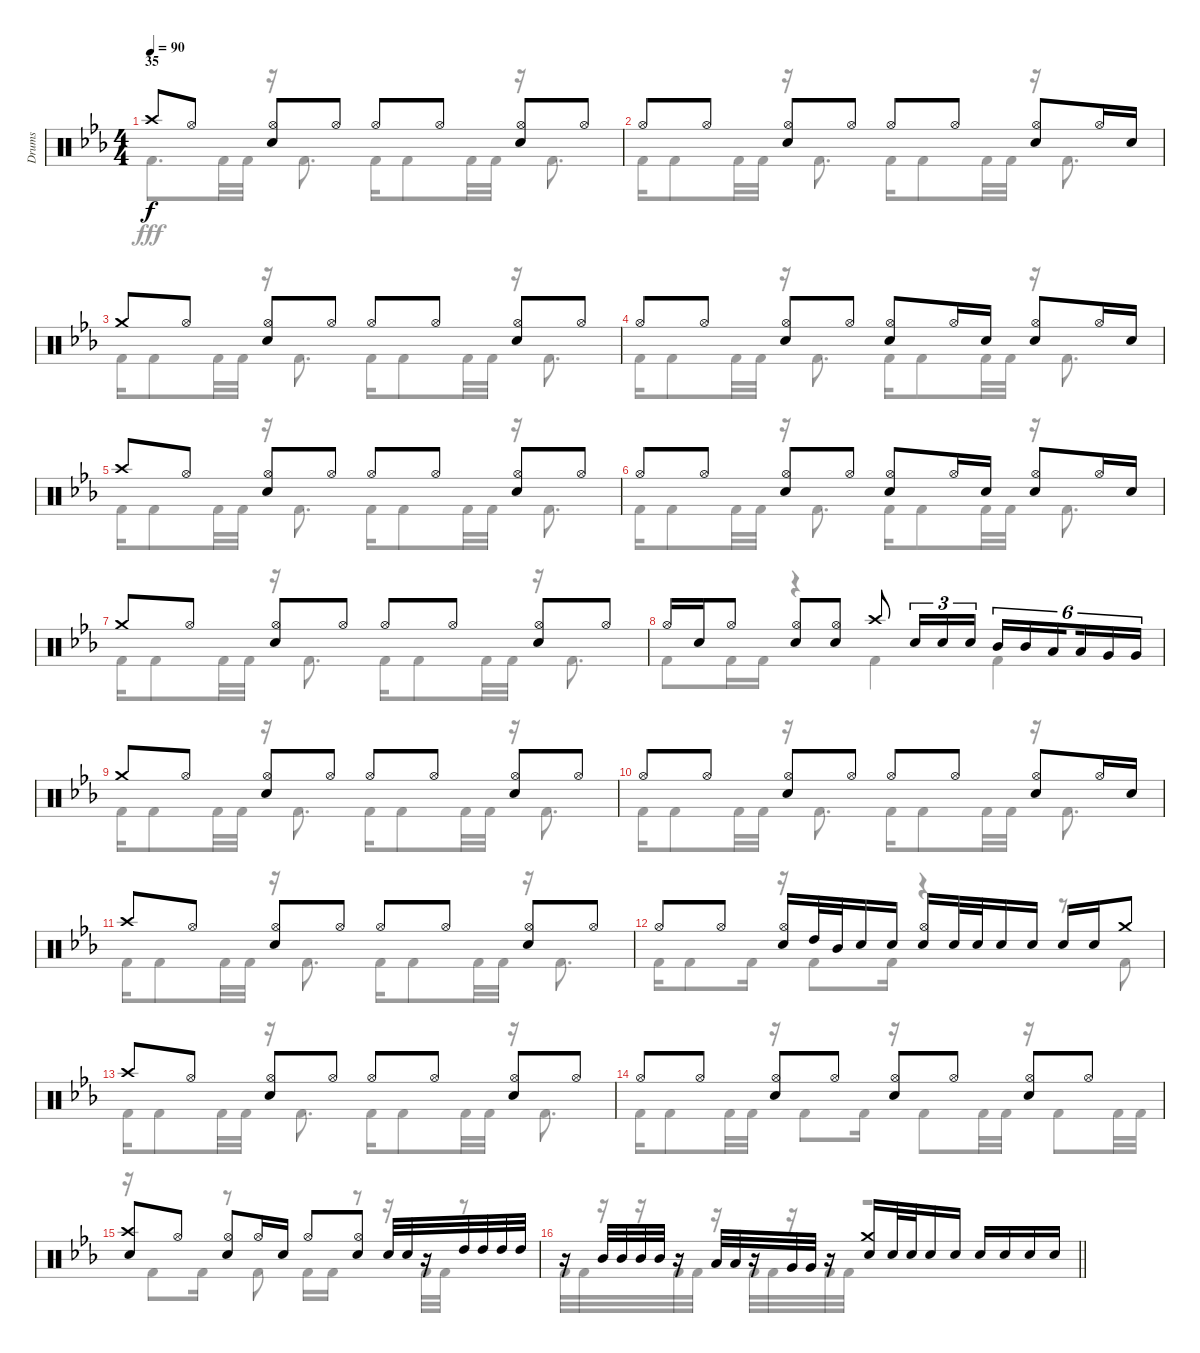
\track ("Drums" "Drums") {instrument percussion}
\staff {score}
\articulation defaults
\voice
\ts (4 4)
\section ("" "35")
\tempo 90
\clef neutral
\ks eb "Crash high (hit)".8{dy f} "Hi-Hat (open)".8
("Hi-Hat (open)" "Snare (hit) 2").8 "Hi-Hat (open)".8 "Hi-Hat (open)".8 "Hi-Hat (open)".8 ("Hi-Hat (open)" "Snare (hit) 2").8 "Hi-Hat (open)".8 |
"Hi-Hat (open)".8 "Hi-Hat (open)".8 ("Hi-Hat (open)" "Snare (hit) 2").8 "Hi-Hat (open)".8 "Hi-Hat (open)".8 "Hi-Hat (open)".8 ("Hi-Hat (open)" "Snare (hit) 2").8 "Hi-Hat (open)".16 "Snare (hit) 2".16 |
"Crash medium (hit)".8 "Hi-Hat (open)".8 ("Hi-Hat (open)" "Snare (hit) 2").8 "Hi-Hat (open)".8 "Hi-Hat (open)".8 "Hi-Hat (open)".8 ("Hi-Hat (open)" "Snare (hit) 2").8 "Hi-Hat (open)".8 |
"Hi-Hat (open)".8 "Hi-Hat (open)".8 ("Hi-Hat (open)" "Snare (hit) 2").8 "Hi-Hat (open)".8 ("Hi-Hat (open)" "Snare (hit) 2").8 "Hi-Hat (open)".16 "Snare (hit) 2".16 ("Hi-Hat (open)" "Snare (hit) 2").8 "Hi-Hat (open)".16 "Snare (hit) 2".16 |
"Crash high (hit)".8 "Hi-Hat (open)".8 ("Hi-Hat (open)" "Snare (hit) 2").8 "Hi-Hat (open)".8 "Hi-Hat (open)".8 "Hi-Hat (open)".8 ("Hi-Hat (open)" "Snare (hit) 2").8 "Hi-Hat (open)".8 |
"Hi-Hat (open)".8 "Hi-Hat (open)".8 ("Hi-Hat (open)" "Snare (hit) 2").8 "Hi-Hat (open)".8 ("Hi-Hat (open)" "Snare (hit) 2").8 "Hi-Hat (open)".16 "Snare (hit) 2".16 ("Hi-Hat (open)" "Snare (hit) 2").8 "Hi-Hat (open)".16 "Snare (hit) 2".16 |
"Crash medium (hit)".8 "Hi-Hat (open)".8 ("Hi-Hat (open)" "Snare (hit) 2").8 "Hi-Hat (open)".8 "Hi-Hat (open)".8 "Hi-Hat (open)".8 ("Hi-Hat (open)" "Snare (hit) 2").8 "Hi-Hat (open)".8 |
"Hi-Hat (open)".16 "Snare (hit) 2".16 "Hi-Hat (open)".8 ("Hi-Hat (open)" "Snare (hit) 2").8 ("Hi-Hat (open)" "Snare (hit) 2").8 "Crash high (hit)".8 "Snare (hit) 2".16{tu (3 2)} "Snare (hit) 2".16{tu (3 2)} "Snare (hit) 2".16{tu (3 2)} "Mid Tom (hit)".16{tu (6 4)} "Mid Tom (hit)".16{tu (6 4)} "Low Tom (hit)".16{tu (6 4) beam splitsecondary} "Low Tom (hit)".16{tu (6 4)} "Very Low Tom (hit)".16{tu (6 4)} "Very Low Tom (hit)".16{tu (6 4)} |
"Crash medium (hit)".8 "Hi-Hat (open)".8 ("Hi-Hat (open)" "Snare (hit) 2").8 "Hi-Hat (open)".8 "Hi-Hat (open)".8 "Hi-Hat (open)".8 ("Hi-Hat (open)" "Snare (hit) 2").8 "Hi-Hat (open)".8 |
"Hi-Hat (open)".8 "Hi-Hat (open)".8 ("Hi-Hat (open)" "Snare (hit) 2").8 "Hi-Hat (open)".8 "Hi-Hat (open)".8 "Hi-Hat (open)".8 ("Hi-Hat (open)" "Snare (hit) 2").8 "Hi-Hat (open)".16 "Snare (hit) 2".16 |
"Crash high (hit)".8 "Hi-Hat (open)".8 ("Hi-Hat (open)" "Snare (hit) 2").8 "Hi-Hat (open)".8 "Hi-Hat (open)".8 "Hi-Hat (open)".8 ("Hi-Hat (open)" "Snare (hit) 2").8 "Hi-Hat (open)".8 |
"Hi-Hat (open)".8 "Hi-Hat (open)".8 ("Hi-Hat (open)" "Snare (hit) 2").16 "High Tom (hit)".32 "Mid Tom (hit)".32 "Snare (hit) 2".16 "Snare (hit) 2".16 ("Hi-Hat (open)" "Snare (hit) 2").16 "Snare (hit) 2".32 "Snare (hit) 2".32 "Snare (hit) 2".16 "Snare (hit) 2".16 "Snare (hit) 2".16 "Snare (hit) 2".16 "Crash medium (hit)".8 |
"Crash high (hit)".8 "Hi-Hat (open)".8 ("Hi-Hat (open)" "Snare (hit) 2").8 "Hi-Hat (open)".8 "Hi-Hat (open)".8 "Hi-Hat (open)".8 ("Hi-Hat (open)" "Snare (hit) 2").8 "Hi-Hat (open)".8 |
"Hi-Hat (open)".8 "Hi-Hat (open)".8 ("Hi-Hat (open)" "Snare (hit) 2").8 "Hi-Hat (open)".8 ("Hi-Hat (open)" "Snare (hit) 2").8 "Hi-Hat (open)".8 ("Hi-Hat (open)" "Snare (hit) 2").8 "Hi-Hat (open)".8 |
("Crash high (hit)" "Snare (hit) 2").8 "Hi-Hat (open)".8 ("Hi-Hat (open)" "Snare (hit) 2").8 "Hi-Hat (open)".16 "Snare (hit) 2".16 "Hi-Hat (open)".8 ("Hi-Hat (open)" "Snare (hit) 2").8 "Snare (hit) 2".32 "Snare (hit) 2".32 r.16 "High Tom (hit)".32 "High Tom (hit)".32 "High Tom (hit)".32 "High Tom (hit)".32 |
\barLineRight lightlight
r.16 "Mid Tom (hit)".32 "Mid Tom (hit)".32 "Mid Tom (hit)".32 "Mid Tom (hit)".32 r.16 "Low Tom (hit)".32 "Low Tom (hit)".32 r.16 "Very Low Tom (hit)".32 "Very Low Tom (hit)".32 r.16 ("Crash medium (hit)" "Snare (hit) 2").16 "Snare (hit) 2".32 "Snare (hit) 2".32 "Snare (hit) 2".16 "Snare (hit) 2".16 "Snare (hit) 2".16 "Snare (hit) 2".16 "Snare (hit) 2".16 "Snare (hit) 2".16
\voice
\clef neutral
\ottava regular
\simile none
\ks eb "Kick (hit) 2".8{d dy fff} "Kick (hit) 2".32 "Kick (hit) 2".32
r.16 "Kick (hit) 2".8{d} "Kick (hit) 2".16 "Kick (hit) 2".8 "Kick (hit) 2".32 "Kick (hit) 2".32 r.16 "Kick (hit) 2".8{d} |
"Kick (hit) 2".16 "Kick (hit) 2".8 "Kick (hit) 2".32 "Kick (hit) 2".32 r.16 "Kick (hit) 2".8{d} "Kick (hit) 2".16 "Kick (hit) 2".8 "Kick (hit) 2".32 "Kick (hit) 2".32 r.16 "Kick (hit) 2".8{d} |
"Kick (hit) 2".16 "Kick (hit) 2".8 "Kick (hit) 2".32 "Kick (hit) 2".32 r.16 "Kick (hit) 2".8{d} "Kick (hit) 2".16 "Kick (hit) 2".8 "Kick (hit) 2".32 "Kick (hit) 2".32 r.16 "Kick (hit) 2".8{d} |
"Kick (hit) 2".16 "Kick (hit) 2".8 "Kick (hit) 2".32 "Kick (hit) 2".32 r.16 "Kick (hit) 2".8{d} "Kick (hit) 2".16 "Kick (hit) 2".8 "Kick (hit) 2".32 "Kick (hit) 2".32 r.16 "Kick (hit) 2".8{d} |
"Kick (hit) 2".16 "Kick (hit) 2".8 "Kick (hit) 2".32 "Kick (hit) 2".32 r.16 "Kick (hit) 2".8{d} "Kick (hit) 2".16 "Kick (hit) 2".8 "Kick (hit) 2".32 "Kick (hit) 2".32 r.16 "Kick (hit) 2".8{d} |
"Kick (hit) 2".16 "Kick (hit) 2".8 "Kick (hit) 2".32 "Kick (hit) 2".32 r.16 "Kick (hit) 2".8{d} "Kick (hit) 2".16 "Kick (hit) 2".8 "Kick (hit) 2".32 "Kick (hit) 2".32 r.16 "Kick (hit) 2".8{d} |
"Kick (hit) 2".16 "Kick (hit) 2".8 "Kick (hit) 2".32 "Kick (hit) 2".32 r.16 "Kick (hit) 2".8{d} "Kick (hit) 2".16 "Kick (hit) 2".8 "Kick (hit) 2".32 "Kick (hit) 2".32 r.16 "Kick (hit) 2".8{d} |
"Kick (hit) 2".8 "Kick (hit) 2".16 "Kick (hit) 2".16 r.4 "Kick (hit) 2".4 "Kick (hit) 2".4 |
"Kick (hit) 2".16 "Kick (hit) 2".8 "Kick (hit) 2".32 "Kick (hit) 2".32 r.16 "Kick (hit) 2".8{d} "Kick (hit) 2".16 "Kick (hit) 2".8 "Kick (hit) 2".32 "Kick (hit) 2".32 r.16 "Kick (hit) 2".8{d} |
"Kick (hit) 2".16 "Kick (hit) 2".8 "Kick (hit) 2".32 "Kick (hit) 2".32 r.16 "Kick (hit) 2".8{d} "Kick (hit) 2".16 "Kick (hit) 2".8 "Kick (hit) 2".32 "Kick (hit) 2".32 r.16 "Kick (hit) 2".8{d} |
"Kick (hit) 2".16 "Kick (hit) 2".8 "Kick (hit) 2".32 "Kick (hit) 2".32 r.16 "Kick (hit) 2".8{d} "Kick (hit) 2".16 "Kick (hit) 2".8 "Kick (hit) 2".32 "Kick (hit) 2".32 r.16 "Kick (hit) 2".8{d} |
"Kick (hit) 2".16 "Kick (hit) 2".8 "Kick (hit) 2".16 r.16 "Kick (hit) 2".8 "Kick (hit) 2".16 r.4 r.8 "Kick (hit) 2".8 |
"Kick (hit) 2".16 "Kick (hit) 2".8 "Kick (hit) 2".32 "Kick (hit) 2".32 r.16 "Kick (hit) 2".8{d} "Kick (hit) 2".16 "Kick (hit) 2".8 "Kick (hit) 2".32 "Kick (hit) 2".32 r.16 "Kick (hit) 2".8{d} |
"Kick (hit) 2".16 "Kick (hit) 2".8 "Kick (hit) 2".32 "Kick (hit) 2".32 r.16 "Kick (hit) 2".8 "Kick (hit) 2".16 r.16 "Kick (hit) 2".8 "Kick (hit) 2".32 "Kick (hit) 2".32 r.16 "Kick (hit) 2".8 "Kick (hit) 2".32 "Kick (hit) 2".32 |
r.16 "Kick (hit) 2".8 "Kick (hit) 2".16 r.8 "Kick (hit) 2".8 "Kick (hit) 2".16 "Kick (hit) 2".16 r.8 r.16 "Kick (hit) 2".32 "Kick (hit) 2".32 r.8 |
\barLineRight lightlight "Kick (hit) 2".32 "Kick (hit) 2".32
r.16 r.16 "Kick (hit) 2".32 "Kick (hit) 2".32 r.16 "Kick (hit) 2".32 "Kick (hit) 2".32 r.16 "Kick (hit) 2".32 "Kick (hit) 2".32 r.2
